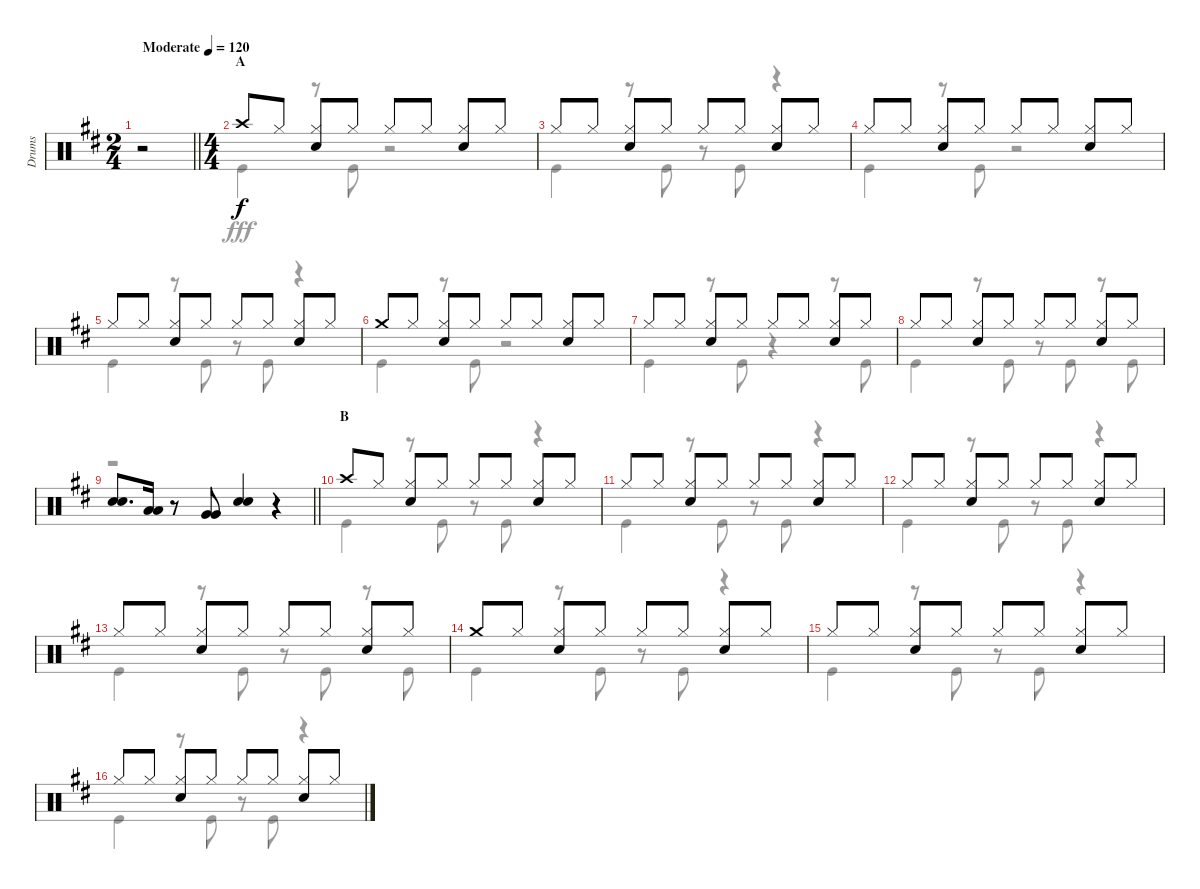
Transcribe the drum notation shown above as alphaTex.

\track ("Drums" "Drums") {instrument percussion}
\staff {score}
\articulation defaults
\voice
\ts (2 4)
\tempo (120 "Moderate")
\clef neutral
\barLineRight lightlight
\ks d
r.2{dy f} |
\ts (4 4)
\section ("" "A")
"Crash high (hit)".8 "Hi-Hat (closed)".8 ("Hi-Hat (closed)" "Snare (hit) 2").8 "Hi-Hat (closed)".8 "Hi-Hat (closed)".8 "Hi-Hat (closed)".8 ("Hi-Hat (closed)" "Snare (hit) 2").8 "Hi-Hat (closed)".8 |
"Hi-Hat (closed)".8 "Hi-Hat (closed)".8 ("Hi-Hat (closed)" "Snare (hit) 2").8 "Hi-Hat (closed)".8 "Hi-Hat (closed)".8 "Hi-Hat (closed)".8 ("Hi-Hat (closed)" "Snare (hit) 2").8 "Hi-Hat (closed)".8 |
"Hi-Hat (closed)".8 "Hi-Hat (closed)".8 ("Hi-Hat (closed)" "Snare (hit) 2").8 "Hi-Hat (closed)".8 "Hi-Hat (closed)".8 "Hi-Hat (closed)".8 ("Hi-Hat (closed)" "Snare (hit) 2").8 "Hi-Hat (closed)".8 |
"Hi-Hat (closed)".8 "Hi-Hat (closed)".8 ("Hi-Hat (closed)" "Snare (hit) 2").8 "Hi-Hat (closed)".8 "Hi-Hat (closed)".8 "Hi-Hat (closed)".8 ("Hi-Hat (closed)" "Snare (hit) 2").8 "Hi-Hat (closed)".8 |
"Crash medium (hit)".8 "Hi-Hat (closed)".8 ("Hi-Hat (closed)" "Snare (hit) 2").8 "Hi-Hat (closed)".8 "Hi-Hat (closed)".8 "Hi-Hat (closed)".8 ("Hi-Hat (closed)" "Snare (hit) 2").8 "Hi-Hat (closed)".8 |
"Hi-Hat (closed)".8 "Hi-Hat (closed)".8 ("Hi-Hat (closed)" "Snare (hit) 2").8 "Hi-Hat (closed)".8 "Hi-Hat (closed)".8 "Hi-Hat (closed)".8 ("Hi-Hat (closed)" "Snare (hit) 2").8 "Hi-Hat (closed)".8 |
"Hi-Hat (closed)".8 "Hi-Hat (closed)".8 ("Hi-Hat (closed)" "Snare (hit) 2").8 "Hi-Hat (closed)".8 "Hi-Hat (closed)".8 "Hi-Hat (closed)".8 ("Hi-Hat (closed)" "Snare (hit) 2").8 "Hi-Hat (closed)".8 |
\barLineRight lightlight
("Snare (hit) 2" "Snare (hit) 2").8{d} ("Low Tom (hit)" "Low Tom (hit)").16 r.8 ("Very Low Tom (hit)" "Very Low Tom (hit)").8 ("Snare (hit) 2" "Snare (hit) 2").4 r.4 |
\section ("" "B")
"Crash high (hit)".8 "Hi-Hat (closed)".8 ("Hi-Hat (closed)" "Snare (hit) 2").8 "Hi-Hat (closed)".8 "Hi-Hat (closed)".8 "Hi-Hat (closed)".8 ("Hi-Hat (closed)" "Snare (hit) 2").8 "Hi-Hat (closed)".8 |
"Hi-Hat (closed)".8 "Hi-Hat (closed)".8 ("Hi-Hat (closed)" "Snare (hit) 2").8 "Hi-Hat (closed)".8 "Hi-Hat (closed)".8 "Hi-Hat (closed)".8 ("Hi-Hat (closed)" "Snare (hit) 2").8 "Hi-Hat (closed)".8 |
"Hi-Hat (closed)".8 "Hi-Hat (closed)".8 ("Hi-Hat (closed)" "Snare (hit) 2").8 "Hi-Hat (closed)".8 "Hi-Hat (closed)".8 "Hi-Hat (closed)".8 ("Hi-Hat (closed)" "Snare (hit) 2").8 "Hi-Hat (closed)".8 |
"Hi-Hat (closed)".8 "Hi-Hat (closed)".8 ("Hi-Hat (closed)" "Snare (hit) 2").8 "Hi-Hat (closed)".8 "Hi-Hat (closed)".8 "Hi-Hat (closed)".8 ("Hi-Hat (closed)" "Snare (hit) 2").8 "Hi-Hat (closed)".8 |
"Crash medium (hit)".8 "Hi-Hat (closed)".8 ("Hi-Hat (closed)" "Snare (hit) 2").8 "Hi-Hat (closed)".8 "Hi-Hat (closed)".8 "Hi-Hat (closed)".8 ("Hi-Hat (closed)" "Snare (hit) 2").8 "Hi-Hat (closed)".8 |
"Hi-Hat (closed)".8 "Hi-Hat (closed)".8 ("Hi-Hat (closed)" "Snare (hit) 2").8 "Hi-Hat (closed)".8 "Hi-Hat (closed)".8 "Hi-Hat (closed)".8 ("Hi-Hat (closed)" "Snare (hit) 2").8 "Hi-Hat (closed)".8 |
"Hi-Hat (closed)".8 "Hi-Hat (closed)".8 ("Hi-Hat (closed)" "Snare (hit) 2").8 "Hi-Hat (closed)".8 "Hi-Hat (closed)".8 "Hi-Hat (closed)".8 ("Hi-Hat (closed)" "Snare (hit) 2").8 "Hi-Hat (closed)".8
\voice
\clef neutral
\ottava regular
\simile none
\barLineRight lightlight
\ks d
r.2{dy fff} |
"Kick (hit)".4 r.8 "Kick (hit)".8 r.2 |
"Kick (hit)".4 r.8 "Kick (hit)".8 r.8 "Kick (hit)".8 r.4 |
"Kick (hit)".4 r.8 "Kick (hit)".8 r.2 |
"Kick (hit)".4 r.8 "Kick (hit)".8 r.8 "Kick (hit)".8 r.4 |
"Kick (hit)".4 r.8 "Kick (hit)".8 r.2 |
"Kick (hit)".4 r.8 "Kick (hit)".8 r.4 r.8 "Kick (hit)".8 |
"Kick (hit)".4 r.8 "Kick (hit)".8 r.8 "Kick (hit)".8 r.8 "Kick (hit)".8 |
\barLineRight lightlight
r.1 |
"Kick (hit)".4 r.8 "Kick (hit)".8 r.8 "Kick (hit)".8 r.4 |
"Kick (hit)".4 r.8 "Kick (hit)".8 r.8 "Kick (hit)".8 r.4 |
"Kick (hit)".4 r.8 "Kick (hit)".8 r.8 "Kick (hit)".8 r.4 |
"Kick (hit)".4 r.8 "Kick (hit)".8 r.8 "Kick (hit)".8 r.8 "Kick (hit)".8 |
"Kick (hit)".4 r.8 "Kick (hit)".8 r.8 "Kick (hit)".8 r.4 |
"Kick (hit)".4 r.8 "Kick (hit)".8 r.8 "Kick (hit)".8 r.4 |
"Kick (hit)".4 r.8 "Kick (hit)".8 r.8 "Kick (hit)".8 r.4
